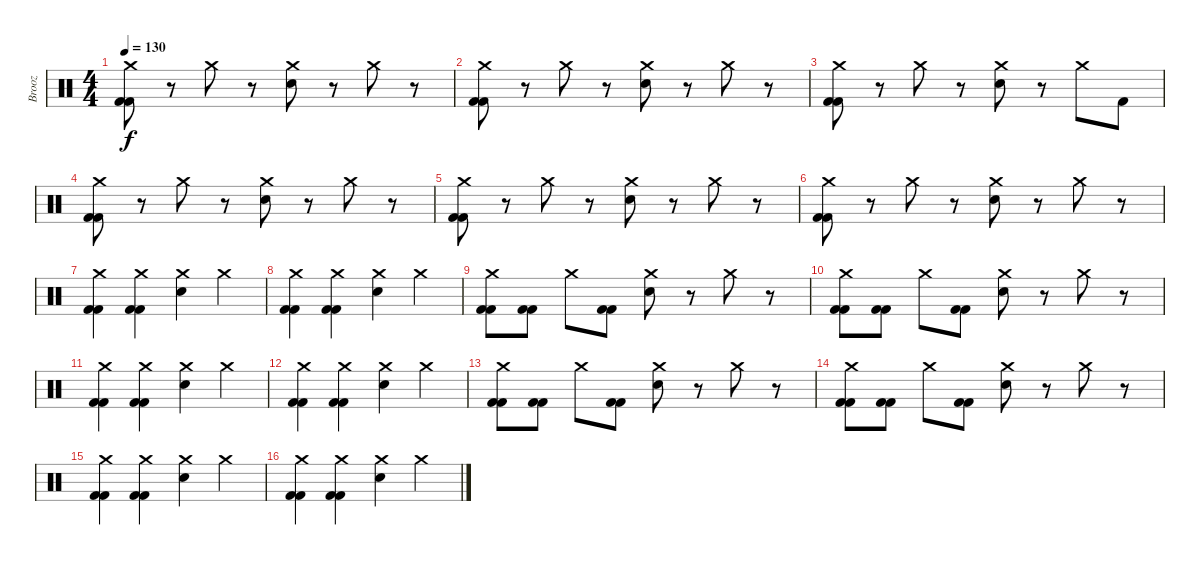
\track ("Brooz" "Brooz") {instrument percussion}
\staff {score}
\articulation defaults
\ts (4 4)
\tempo 130
\clef neutral
\ks c
("Kick (hit) 2" "Crash medium (hit)" "Kick (hit) 2").8{dy f} r.8 "Crash medium (hit)".8 r.8 ("Crash medium (hit)" "Electric Snare (hit)").8 r.8 "Crash medium (hit)".8 r.8 |
("Kick (hit) 2" "Crash medium (hit)" "Kick (hit) 2").8 r.8 "Crash medium (hit)".8 r.8 ("Crash medium (hit)" "Electric Snare (hit)").8 r.8 "Crash medium (hit)".8 r.8 |
("Kick (hit) 2" "Crash medium (hit)" "Kick (hit) 2").8 r.8 "Crash medium (hit)".8 r.8 ("Crash medium (hit)" "Electric Snare (hit)").8 r.8 "Crash medium (hit)".8 "Kick (hit) 2".8 |
("Kick (hit) 2" "Crash medium (hit)" "Kick (hit) 2").8 r.8 "Crash medium (hit)".8 r.8 ("Crash medium (hit)" "Electric Snare (hit)").8 r.8 "Crash medium (hit)".8 r.8 |
("Kick (hit) 2" "Crash medium (hit)" "Kick (hit) 2").8 r.8 "Crash medium (hit)".8 r.8 ("Crash medium (hit)" "Electric Snare (hit)").8 r.8 "Crash medium (hit)".8 r.8 |
("Kick (hit) 2" "Crash medium (hit)" "Kick (hit) 2").8 r.8 "Crash medium (hit)".8 r.8 ("Crash medium (hit)" "Electric Snare (hit)").8 r.8 "Crash medium (hit)".8 r.8 |
("Kick (hit) 2" "Crash medium (hit)" "Kick (hit) 2").4 ("Kick (hit) 2" "Crash medium (hit)" "Kick (hit) 2").4 ("Crash medium (hit)" "Electric Snare (hit)").4 "Crash medium (hit)".4 |
("Kick (hit) 2" "Crash medium (hit)" "Kick (hit) 2").4 ("Kick (hit) 2" "Crash medium (hit)" "Kick (hit) 2").4 ("Crash medium (hit)" "Electric Snare (hit)").4 "Crash medium (hit)".4 |
("Kick (hit) 2" "Crash medium (hit)" "Kick (hit) 2").8 ("Kick (hit) 2" "Kick (hit) 2").8 "Crash medium (hit)".8 ("Kick (hit) 2" "Kick (hit) 2").8 ("Crash medium (hit)" "Electric Snare (hit)").8 r.8 "Crash medium (hit)".8 r.8 |
("Kick (hit) 2" "Crash medium (hit)" "Kick (hit) 2").8 ("Kick (hit) 2" "Kick (hit) 2").8 "Crash medium (hit)".8 ("Kick (hit) 2" "Kick (hit) 2").8 ("Crash medium (hit)" "Electric Snare (hit)").8 r.8 "Crash medium (hit)".8 r.8 |
("Kick (hit) 2" "Crash medium (hit)" "Kick (hit) 2").4 ("Kick (hit) 2" "Crash medium (hit)" "Kick (hit) 2").4 ("Crash medium (hit)" "Electric Snare (hit)").4 "Crash medium (hit)".4 |
("Kick (hit) 2" "Crash medium (hit)" "Kick (hit) 2").4 ("Kick (hit) 2" "Crash medium (hit)" "Kick (hit) 2").4 ("Crash medium (hit)" "Electric Snare (hit)").4 "Crash medium (hit)".4 |
("Kick (hit) 2" "Crash medium (hit)" "Kick (hit) 2").8 ("Kick (hit) 2" "Kick (hit) 2").8 "Crash medium (hit)".8 ("Kick (hit) 2" "Kick (hit) 2").8 ("Crash medium (hit)" "Electric Snare (hit)").8 r.8 "Crash medium (hit)".8 r.8 |
("Kick (hit) 2" "Crash medium (hit)" "Kick (hit) 2").8 ("Kick (hit) 2" "Kick (hit) 2").8 "Crash medium (hit)".8 ("Kick (hit) 2" "Kick (hit) 2").8 ("Crash medium (hit)" "Electric Snare (hit)").8 r.8 "Crash medium (hit)".8 r.8 |
("Kick (hit) 2" "Crash medium (hit)" "Kick (hit) 2").4 ("Kick (hit) 2" "Crash medium (hit)" "Kick (hit) 2").4 ("Crash medium (hit)" "Electric Snare (hit)").4 "Crash medium (hit)".4 |
("Kick (hit) 2" "Crash medium (hit)" "Kick (hit) 2").4 ("Kick (hit) 2" "Crash medium (hit)" "Kick (hit) 2").4 ("Crash medium (hit)" "Electric Snare (hit)").4 "Crash medium (hit)".4
